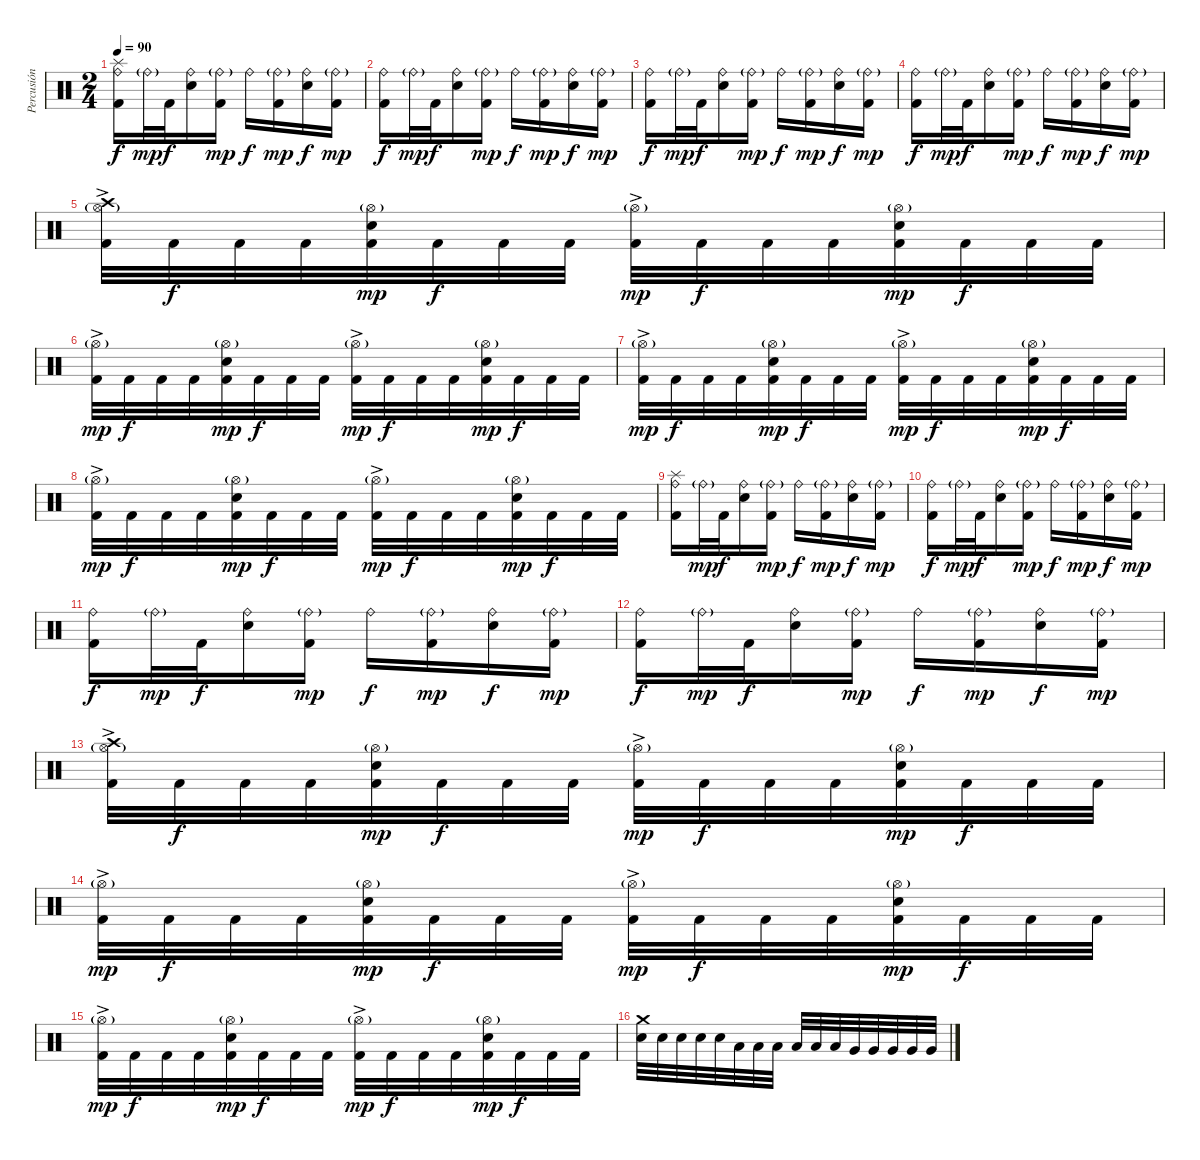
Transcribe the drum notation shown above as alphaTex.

\track ("Percusión" "Percusión") {instrument percussion}
\staff {score}
\articulation defaults
\ts (2 4)
\tempo 90
\clef neutral
\ks c
("Kick (hit) 2" "Ride (bell)" "Splash (hit)").16{dy f} "Ride (bell)"{g}.32{dy mp} "Kick (hit) 2".32{dy f} ("Electric Snare (hit)" "Ride (bell)").16 ("Kick (hit) 2" "Ride (bell)"{g}).16{dy mp} "Ride (bell)".16{dy f} ("Kick (hit) 2" "Ride (bell)"{g}).16{dy mp} ("Electric Snare (hit)" "Ride (bell)").16{dy f} ("Kick (hit) 2" "Ride (bell)"{g}).16{dy mp} |
("Kick (hit) 2" "Ride (bell)").16{dy f} "Ride (bell)"{g}.32{dy mp} "Kick (hit) 2".32{dy f} ("Electric Snare (hit)" "Ride (bell)").16 ("Kick (hit) 2" "Ride (bell)"{g}).16{dy mp} "Ride (bell)".16{dy f} ("Kick (hit) 2" "Ride (bell)"{g}).16{dy mp} ("Electric Snare (hit)" "Ride (bell)").16{dy f} ("Kick (hit) 2" "Ride (bell)"{g}).16{dy mp} |
("Kick (hit) 2" "Ride (bell)").16{dy f} "Ride (bell)"{g}.32{dy mp} "Kick (hit) 2".32{dy f} ("Electric Snare (hit)" "Ride (bell)").16 ("Kick (hit) 2" "Ride (bell)"{g}).16{dy mp} "Ride (bell)".16{dy f} ("Kick (hit) 2" "Ride (bell)"{g}).16{dy mp} ("Electric Snare (hit)" "Ride (bell)").16{dy f} ("Kick (hit) 2" "Ride (bell)"{g}).16{dy mp} |
("Kick (hit) 2" "Ride (bell)").16{dy f} "Ride (bell)"{g}.32{dy mp} "Kick (hit) 2".32{dy f} ("Electric Snare (hit)" "Ride (bell)").16 ("Kick (hit) 2" "Ride (bell)"{g}).16{dy mp} "Ride (bell)".16{dy f} ("Kick (hit) 2" "Ride (bell)"{g}).16{dy mp} ("Electric Snare (hit)" "Ride (bell)").16{dy f} ("Kick (hit) 2" "Ride (bell)"{g}).16{dy mp} |
("Kick (hit) 2"{ac} "Hi-Hat (open)"{g} "Crash high (hit)").32 "Kick (hit) 2".32{dy f} "Kick (hit) 2".32 "Kick (hit) 2".32 ("Kick (hit) 2" "Electric Snare (hit)" "Hi-Hat (open)"{g}).32{dy mp} "Kick (hit) 2".32{dy f} "Kick (hit) 2".32 "Kick (hit) 2".32 ("Kick (hit) 2"{ac} "Hi-Hat (open)"{g}).32{dy mp} "Kick (hit) 2".32{dy f} "Kick (hit) 2".32 "Kick (hit) 2".32 ("Kick (hit) 2" "Electric Snare (hit)" "Hi-Hat (open)"{g}).32{dy mp} "Kick (hit) 2".32{dy f} "Kick (hit) 2".32 "Kick (hit) 2".32 |
("Kick (hit) 2"{ac} "Hi-Hat (open)"{g}).32{dy mp} "Kick (hit) 2".32{dy f} "Kick (hit) 2".32 "Kick (hit) 2".32 ("Kick (hit) 2" "Electric Snare (hit)" "Hi-Hat (open)"{g}).32{dy mp} "Kick (hit) 2".32{dy f} "Kick (hit) 2".32 "Kick (hit) 2".32 ("Kick (hit) 2"{ac} "Hi-Hat (open)"{g}).32{dy mp} "Kick (hit) 2".32{dy f} "Kick (hit) 2".32 "Kick (hit) 2".32 ("Kick (hit) 2" "Electric Snare (hit)" "Hi-Hat (open)"{g}).32{dy mp} "Kick (hit) 2".32{dy f} "Kick (hit) 2".32 "Kick (hit) 2".32 |
("Kick (hit) 2"{ac} "Hi-Hat (open)"{g}).32{dy mp} "Kick (hit) 2".32{dy f} "Kick (hit) 2".32 "Kick (hit) 2".32 ("Kick (hit) 2" "Electric Snare (hit)" "Hi-Hat (open)"{g}).32{dy mp} "Kick (hit) 2".32{dy f} "Kick (hit) 2".32 "Kick (hit) 2".32 ("Kick (hit) 2"{ac} "Hi-Hat (open)"{g}).32{dy mp} "Kick (hit) 2".32{dy f} "Kick (hit) 2".32 "Kick (hit) 2".32 ("Kick (hit) 2" "Electric Snare (hit)" "Hi-Hat (open)"{g}).32{dy mp} "Kick (hit) 2".32{dy f} "Kick (hit) 2".32 "Kick (hit) 2".32 |
("Kick (hit) 2"{ac} "Hi-Hat (open)"{g}).32{dy mp} "Kick (hit) 2".32{dy f} "Kick (hit) 2".32 "Kick (hit) 2".32 ("Kick (hit) 2" "Electric Snare (hit)" "Hi-Hat (open)"{g}).32{dy mp} "Kick (hit) 2".32{dy f} "Kick (hit) 2".32 "Kick (hit) 2".32 ("Kick (hit) 2"{ac} "Hi-Hat (open)"{g}).32{dy mp} "Kick (hit) 2".32{dy f} "Kick (hit) 2".32 "Kick (hit) 2".32 ("Kick (hit) 2" "Electric Snare (hit)" "Hi-Hat (open)"{g}).32{dy mp} "Kick (hit) 2".32{dy f} "Kick (hit) 2".32 "Kick (hit) 2".32 |
("Kick (hit) 2" "Ride (bell)" "Splash (hit)").16 "Ride (bell)"{g}.32{dy mp} "Kick (hit) 2".32{dy f} ("Electric Snare (hit)" "Ride (bell)").16 ("Kick (hit) 2" "Ride (bell)"{g}).16{dy mp} "Ride (bell)".16{dy f} ("Kick (hit) 2" "Ride (bell)"{g}).16{dy mp} ("Electric Snare (hit)" "Ride (bell)").16{dy f} ("Kick (hit) 2" "Ride (bell)"{g}).16{dy mp} |
("Kick (hit) 2" "Ride (bell)").16{dy f} "Ride (bell)"{g}.32{dy mp} "Kick (hit) 2".32{dy f} ("Electric Snare (hit)" "Ride (bell)").16 ("Kick (hit) 2" "Ride (bell)"{g}).16{dy mp} "Ride (bell)".16{dy f} ("Kick (hit) 2" "Ride (bell)"{g}).16{dy mp} ("Electric Snare (hit)" "Ride (bell)").16{dy f} ("Kick (hit) 2" "Ride (bell)"{g}).16{dy mp} |
("Kick (hit) 2" "Ride (bell)").16{dy f} "Ride (bell)"{g}.32{dy mp} "Kick (hit) 2".32{dy f} ("Electric Snare (hit)" "Ride (bell)").16 ("Kick (hit) 2" "Ride (bell)"{g}).16{dy mp} "Ride (bell)".16{dy f} ("Kick (hit) 2" "Ride (bell)"{g}).16{dy mp} ("Electric Snare (hit)" "Ride (bell)").16{dy f} ("Kick (hit) 2" "Ride (bell)"{g}).16{dy mp} |
("Kick (hit) 2" "Ride (bell)").16{dy f} "Ride (bell)"{g}.32{dy mp} "Kick (hit) 2".32{dy f} ("Electric Snare (hit)" "Ride (bell)").16 ("Kick (hit) 2" "Ride (bell)"{g}).16{dy mp} "Ride (bell)".16{dy f} ("Kick (hit) 2" "Ride (bell)"{g}).16{dy mp} ("Electric Snare (hit)" "Ride (bell)").16{dy f} ("Kick (hit) 2" "Ride (bell)"{g}).16{dy mp} |
("Kick (hit) 2"{ac} "Hi-Hat (open)"{g} "Crash high (hit)").32 "Kick (hit) 2".32{dy f} "Kick (hit) 2".32 "Kick (hit) 2".32 ("Kick (hit) 2" "Electric Snare (hit)" "Hi-Hat (open)"{g}).32{dy mp} "Kick (hit) 2".32{dy f} "Kick (hit) 2".32 "Kick (hit) 2".32 ("Kick (hit) 2"{ac} "Hi-Hat (open)"{g}).32{dy mp} "Kick (hit) 2".32{dy f} "Kick (hit) 2".32 "Kick (hit) 2".32 ("Kick (hit) 2" "Electric Snare (hit)" "Hi-Hat (open)"{g}).32{dy mp} "Kick (hit) 2".32{dy f} "Kick (hit) 2".32 "Kick (hit) 2".32 |
("Kick (hit) 2"{ac} "Hi-Hat (open)"{g}).32{dy mp} "Kick (hit) 2".32{dy f} "Kick (hit) 2".32 "Kick (hit) 2".32 ("Kick (hit) 2" "Electric Snare (hit)" "Hi-Hat (open)"{g}).32{dy mp} "Kick (hit) 2".32{dy f} "Kick (hit) 2".32 "Kick (hit) 2".32 ("Kick (hit) 2"{ac} "Hi-Hat (open)"{g}).32{dy mp} "Kick (hit) 2".32{dy f} "Kick (hit) 2".32 "Kick (hit) 2".32 ("Kick (hit) 2" "Electric Snare (hit)" "Hi-Hat (open)"{g}).32{dy mp} "Kick (hit) 2".32{dy f} "Kick (hit) 2".32 "Kick (hit) 2".32 |
("Kick (hit) 2"{ac} "Hi-Hat (open)"{g}).32{dy mp} "Kick (hit) 2".32{dy f} "Kick (hit) 2".32 "Kick (hit) 2".32 ("Kick (hit) 2" "Electric Snare (hit)" "Hi-Hat (open)"{g}).32{dy mp} "Kick (hit) 2".32{dy f} "Kick (hit) 2".32 "Kick (hit) 2".32 ("Kick (hit) 2"{ac} "Hi-Hat (open)"{g}).32{dy mp} "Kick (hit) 2".32{dy f} "Kick (hit) 2".32 "Kick (hit) 2".32 ("Kick (hit) 2" "Electric Snare (hit)" "Hi-Hat (open)"{g}).32{dy mp} "Kick (hit) 2".32{dy f} "Kick (hit) 2".32 "Kick (hit) 2".32 |
("Electric Snare (hit)" "Crash medium (hit)").32 "Electric Snare (hit)".32 "Electric Snare (hit)".32 "Electric Snare (hit)".32 "Electric Snare (hit)".32 "Low Tom (hit)".32 "Low Tom (hit)".32 "Low Tom (hit)".32 "Low Tom (hit)".32 "Low Tom (hit)".32 "Low Tom (hit)".32 "Very Low Tom (hit)".32 "Very Low Tom (hit)".32 "Very Low Tom (hit)".32 "Very Low Tom (hit)".32 "Very Low Tom (hit)".32
